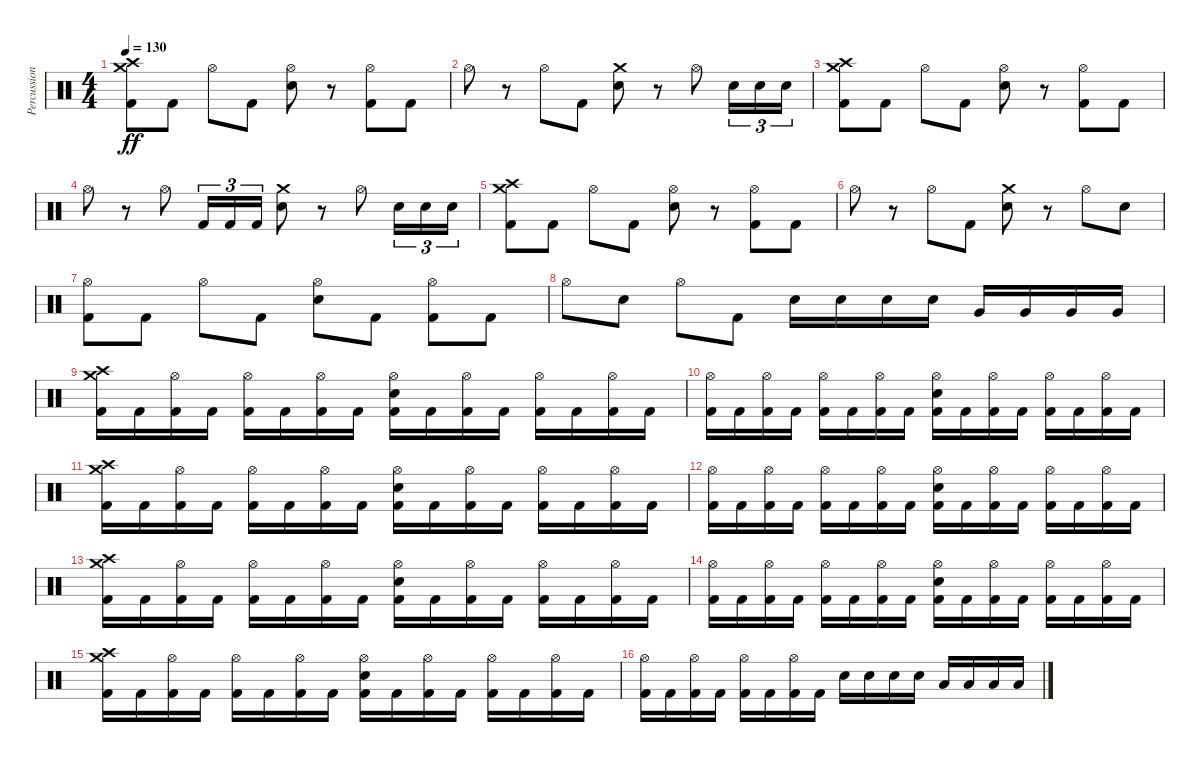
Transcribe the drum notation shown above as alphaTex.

\track ("Percussion" "Percussion") {instrument percussion}
\staff {score}
\articulation defaults
\ts (4 4)
\tempo 130
\clef neutral
\ks c
("Kick (hit) 2" "Crash high (hit)" "Crash medium (hit)").8{dy ff} "Kick (hit) 2".8 "Hi-Hat (open)".8 "Kick (hit) 2".8 ("Electric Snare (hit)" "Hi-Hat (open)").8 r.8 ("Kick (hit) 2" "Hi-Hat (open)").8 "Kick (hit) 2".8 |
"Hi-Hat (open)".8 r.8 "Hi-Hat (open)".8 "Kick (hit) 2".8 ("Electric Snare (hit)" "Crash medium (hit)").8 r.8 "Hi-Hat (open)".8 "Electric Snare (hit)".16{tu (3 2)} "Electric Snare (hit)".16{tu (3 2)} "Electric Snare (hit)".16{tu (3 2)} |
("Kick (hit) 2" "Crash high (hit)" "Crash medium (hit)").8 "Kick (hit) 2".8 "Hi-Hat (open)".8 "Kick (hit) 2".8 ("Electric Snare (hit)" "Hi-Hat (open)").8 r.8 ("Kick (hit) 2" "Hi-Hat (open)").8 "Kick (hit) 2".8 |
"Hi-Hat (open)".8 r.8 "Hi-Hat (open)".8 "Kick (hit) 2".16{tu (3 2)} "Kick (hit) 2".16{tu (3 2)} "Kick (hit) 2".16{tu (3 2)} ("Electric Snare (hit)" "Crash medium (hit)").8 r.8 "Hi-Hat (open)".8 "Electric Snare (hit)".16{tu (3 2)} "Electric Snare (hit)".16{tu (3 2)} "Electric Snare (hit)".16{tu (3 2)} |
("Kick (hit) 2" "Crash high (hit)" "Crash medium (hit)").8 "Kick (hit) 2".8 "Hi-Hat (open)".8 "Kick (hit) 2".8 ("Electric Snare (hit)" "Hi-Hat (open)").8 r.8 ("Kick (hit) 2" "Hi-Hat (open)").8 "Kick (hit) 2".8 |
"Hi-Hat (open)".8 r.8 "Hi-Hat (open)".8 "Kick (hit) 2".8 ("Electric Snare (hit)" "Crash medium (hit)").8 r.8 "Hi-Hat (open)".8 "Electric Snare (hit)".8 |
("Kick (hit) 2" "Hi-Hat (open)").8 "Kick (hit) 2".8 "Hi-Hat (open)".8 "Kick (hit) 2".8 ("Electric Snare (hit)" "Hi-Hat (open)").8 "Kick (hit) 2".8 ("Kick (hit) 2" "Hi-Hat (open)").8 "Kick (hit) 2".8 |
"Hi-Hat (open)".8 "Electric Snare (hit)".8 "Hi-Hat (open)".8 "Kick (hit) 2".8 "Electric Snare (hit)".16 "Electric Snare (hit)".16 "Electric Snare (hit)".16 "Electric Snare (hit)".16 "Very Low Tom (hit)".16 "Very Low Tom (hit)".16 "Very Low Tom (hit)".16 "Very Low Tom (hit)".16 |
("Kick (hit) 2" "Crash high (hit)" "Crash medium (hit)").16 "Kick (hit) 2".16 ("Kick (hit) 2" "Hi-Hat (open)").16 "Kick (hit) 2".16 ("Kick (hit) 2" "Hi-Hat (open)").16 "Kick (hit) 2".16 ("Kick (hit) 2" "Hi-Hat (open)").16 "Kick (hit) 2".16 ("Kick (hit) 2" "Electric Snare (hit)" "Hi-Hat (open)").16 "Kick (hit) 2".16 ("Kick (hit) 2" "Hi-Hat (open)").16 "Kick (hit) 2".16 ("Kick (hit) 2" "Hi-Hat (open)").16 "Kick (hit) 2".16 ("Kick (hit) 2" "Hi-Hat (open)").16 "Kick (hit) 2".16 |
("Kick (hit) 2" "Hi-Hat (open)").16 "Kick (hit) 2".16 ("Kick (hit) 2" "Hi-Hat (open)").16 "Kick (hit) 2".16 ("Kick (hit) 2" "Hi-Hat (open)").16 "Kick (hit) 2".16 ("Kick (hit) 2" "Hi-Hat (open)").16 "Kick (hit) 2".16 ("Kick (hit) 2" "Electric Snare (hit)" "Hi-Hat (open)").16 "Kick (hit) 2".16 ("Kick (hit) 2" "Hi-Hat (open)").16 "Kick (hit) 2".16 ("Kick (hit) 2" "Hi-Hat (open)").16 "Kick (hit) 2".16 ("Kick (hit) 2" "Hi-Hat (open)").16 "Kick (hit) 2".16 |
("Kick (hit) 2" "Crash high (hit)" "Crash medium (hit)").16 "Kick (hit) 2".16 ("Kick (hit) 2" "Hi-Hat (open)").16 "Kick (hit) 2".16 ("Kick (hit) 2" "Hi-Hat (open)").16 "Kick (hit) 2".16 ("Kick (hit) 2" "Hi-Hat (open)").16 "Kick (hit) 2".16 ("Kick (hit) 2" "Electric Snare (hit)" "Hi-Hat (open)").16 "Kick (hit) 2".16 ("Kick (hit) 2" "Hi-Hat (open)").16 "Kick (hit) 2".16 ("Kick (hit) 2" "Hi-Hat (open)").16 "Kick (hit) 2".16 ("Kick (hit) 2" "Hi-Hat (open)").16 "Kick (hit) 2".16 |
("Kick (hit) 2" "Hi-Hat (open)").16 "Kick (hit) 2".16 ("Kick (hit) 2" "Hi-Hat (open)").16 "Kick (hit) 2".16 ("Kick (hit) 2" "Hi-Hat (open)").16 "Kick (hit) 2".16 ("Kick (hit) 2" "Hi-Hat (open)").16 "Kick (hit) 2".16 ("Kick (hit) 2" "Electric Snare (hit)" "Hi-Hat (open)").16 "Kick (hit) 2".16 ("Kick (hit) 2" "Hi-Hat (open)").16 "Kick (hit) 2".16 ("Kick (hit) 2" "Hi-Hat (open)").16 "Kick (hit) 2".16 ("Kick (hit) 2" "Hi-Hat (open)").16 "Kick (hit) 2".16 |
("Kick (hit) 2" "Crash high (hit)" "Crash medium (hit)").16 "Kick (hit) 2".16 ("Kick (hit) 2" "Hi-Hat (open)").16 "Kick (hit) 2".16 ("Kick (hit) 2" "Hi-Hat (open)").16 "Kick (hit) 2".16 ("Kick (hit) 2" "Hi-Hat (open)").16 "Kick (hit) 2".16 ("Kick (hit) 2" "Electric Snare (hit)" "Hi-Hat (open)").16 "Kick (hit) 2".16 ("Kick (hit) 2" "Hi-Hat (open)").16 "Kick (hit) 2".16 ("Kick (hit) 2" "Hi-Hat (open)").16 "Kick (hit) 2".16 ("Kick (hit) 2" "Hi-Hat (open)").16 "Kick (hit) 2".16 |
("Kick (hit) 2" "Hi-Hat (open)").16 "Kick (hit) 2".16 ("Kick (hit) 2" "Hi-Hat (open)").16 "Kick (hit) 2".16 ("Kick (hit) 2" "Hi-Hat (open)").16 "Kick (hit) 2".16 ("Kick (hit) 2" "Hi-Hat (open)").16 "Kick (hit) 2".16 ("Kick (hit) 2" "Electric Snare (hit)" "Hi-Hat (open)").16 "Kick (hit) 2".16 ("Kick (hit) 2" "Hi-Hat (open)").16 "Kick (hit) 2".16 ("Kick (hit) 2" "Hi-Hat (open)").16 "Kick (hit) 2".16 ("Kick (hit) 2" "Hi-Hat (open)").16 "Kick (hit) 2".16 |
("Kick (hit) 2" "Crash high (hit)" "Crash medium (hit)").16 "Kick (hit) 2".16 ("Kick (hit) 2" "Hi-Hat (open)").16 "Kick (hit) 2".16 ("Kick (hit) 2" "Hi-Hat (open)").16 "Kick (hit) 2".16 ("Kick (hit) 2" "Hi-Hat (open)").16 "Kick (hit) 2".16 ("Kick (hit) 2" "Electric Snare (hit)" "Hi-Hat (open)").16 "Kick (hit) 2".16 ("Kick (hit) 2" "Hi-Hat (open)").16 "Kick (hit) 2".16 ("Kick (hit) 2" "Hi-Hat (open)").16 "Kick (hit) 2".16 ("Kick (hit) 2" "Hi-Hat (open)").16 "Kick (hit) 2".16 |
("Kick (hit) 2" "Hi-Hat (open)").16 "Kick (hit) 2".16 ("Kick (hit) 2" "Hi-Hat (open)").16 "Kick (hit) 2".16 ("Kick (hit) 2" "Hi-Hat (open)").16 "Kick (hit) 2".16 ("Kick (hit) 2" "Hi-Hat (open)").16 "Kick (hit) 2".16 "Electric Snare (hit)".16 "Electric Snare (hit)".16 "Electric Snare (hit)".16 "Electric Snare (hit)".16 "Low Tom (hit)".16 "Low Tom (hit)".16 "Low Tom (hit)".16 "Low Tom (hit)".16
